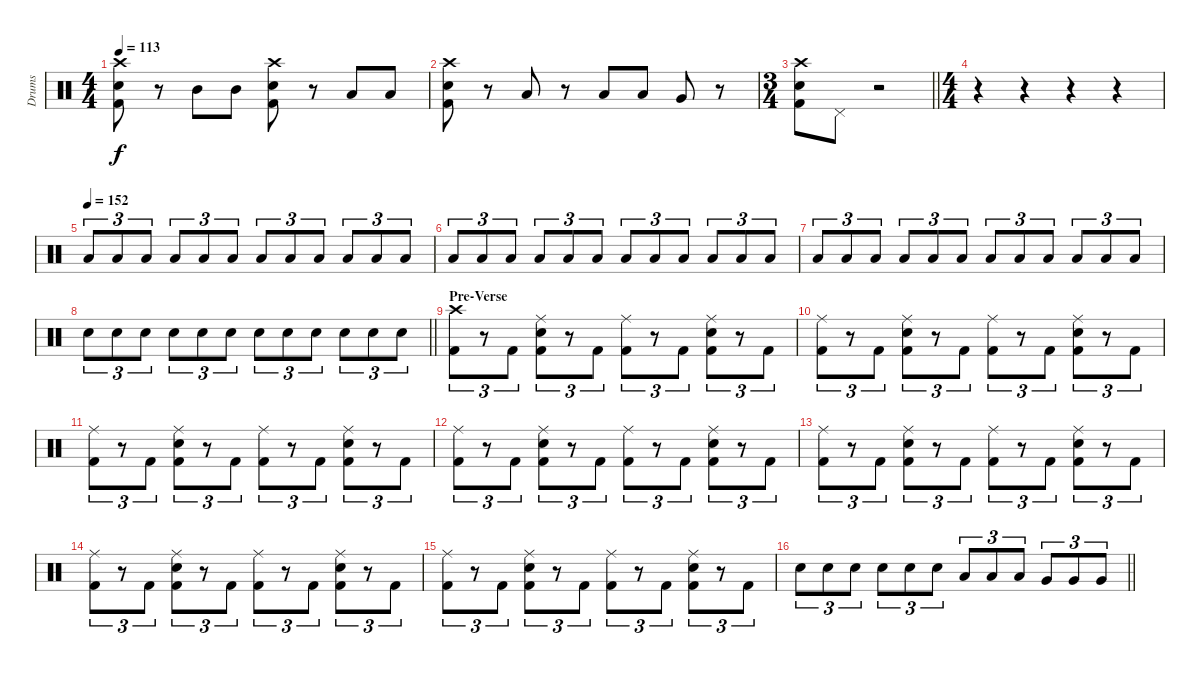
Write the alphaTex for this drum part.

\track ("Drums" "Drums") {instrument percussion}
\staff {score}
\articulation defaults
\ts (4 4)
\tempo 113
\clef neutral
\ks c
("Crash high (hit)" "Snare (hit) 2" "Kick (hit) 2").8{dy f} r.8 "Mid Tom (hit)".8 "Mid Tom (hit)".8 ("Crash high (hit)" "Snare (hit) 2" "Kick (hit) 2").8 r.8 "Low Tom (hit)".8 "Low Tom (hit)".8 |
("Crash high (hit)" "Snare (hit) 2" "Kick (hit) 2").8 r.8 "Low Tom (hit)".8 r.8 "Low Tom (hit)".8 "Low Tom (hit)".8 "Very Low Tom (hit)".8 r.8 |
\ts (3 4)
\barLineRight lightlight
("Crash high (hit)" "Snare (hit) 2" "Kick (hit) 2").8 "Pedal Hi-Hat (hit)".8 r.2 |
\ts (4 4)
r.4 r.4 r.4 r.4 |
\tempo (152)
"Low Tom (hit)".8{tu (3 2)} "Low Tom (hit)".8{tu (3 2)} "Low Tom (hit)".8{tu (3 2)} "Low Tom (hit)".8{tu (3 2)} "Low Tom (hit)".8{tu (3 2)} "Low Tom (hit)".8{tu (3 2)} "Low Tom (hit)".8{tu (3 2)} "Low Tom (hit)".8{tu (3 2)} "Low Tom (hit)".8{tu (3 2)} "Low Tom (hit)".8{tu (3 2)} "Low Tom (hit)".8{tu (3 2)} "Low Tom (hit)".8{tu (3 2)} |
"Low Tom (hit)".8{tu (3 2)} "Low Tom (hit)".8{tu (3 2)} "Low Tom (hit)".8{tu (3 2)} "Low Tom (hit)".8{tu (3 2)} "Low Tom (hit)".8{tu (3 2)} "Low Tom (hit)".8{tu (3 2)} "Low Tom (hit)".8{tu (3 2)} "Low Tom (hit)".8{tu (3 2)} "Low Tom (hit)".8{tu (3 2)} "Low Tom (hit)".8{tu (3 2)} "Low Tom (hit)".8{tu (3 2)} "Low Tom (hit)".8{tu (3 2)} |
"Low Tom (hit)".8{tu (3 2)} "Low Tom (hit)".8{tu (3 2)} "Low Tom (hit)".8{tu (3 2)} "Low Tom (hit)".8{tu (3 2)} "Low Tom (hit)".8{tu (3 2)} "Low Tom (hit)".8{tu (3 2)} "Low Tom (hit)".8{tu (3 2)} "Low Tom (hit)".8{tu (3 2)} "Low Tom (hit)".8{tu (3 2)} "Low Tom (hit)".8{tu (3 2)} "Low Tom (hit)".8{tu (3 2)} "Low Tom (hit)".8{tu (3 2)} |
\barLineRight lightlight "Snare (hit) 2".8{tu (3 2)} "Snare (hit) 2".8{tu (3 2)} "Snare (hit) 2".8{tu (3 2)} "Snare (hit) 2".8{tu (3 2)} "Snare (hit) 2".8{tu (3 2)} "Snare (hit) 2".8{tu (3 2)} "Snare (hit) 2".8{tu (3 2)} "Snare (hit) 2".8{tu (3 2)} "Snare (hit) 2".8{tu (3 2)} "Snare (hit) 2".8{tu (3 2)} "Snare (hit) 2".8{tu (3 2)} "Snare (hit) 2".8{tu (3 2)}
|
\section ("" "Pre-Verse")
("Crash high (hit)" "Kick (hit) 2").8{tu (3 2)} r.8{tu (3 2)} "Kick (hit) 2".8{tu (3 2)} ("Ride (middle)" "Snare (hit) 2" "Kick (hit) 2").8{tu (3 2)} r.8{tu (3 2)} "Kick (hit) 2".8{tu (3 2)} ("Ride (middle)" "Kick (hit) 2").8{tu (3 2)} r.8{tu (3 2)} "Kick (hit) 2".8{tu (3 2)} ("Ride (middle)" "Snare (hit) 2" "Kick (hit) 2").8{tu (3 2)} r.8{tu (3 2)} "Kick (hit) 2".8{tu (3 2)} |
("Ride (middle)" "Kick (hit) 2").8{tu (3 2)} r.8{tu (3 2)} "Kick (hit) 2".8{tu (3 2)} ("Ride (middle)" "Snare (hit) 2" "Kick (hit) 2").8{tu (3 2)} r.8{tu (3 2)} "Kick (hit) 2".8{tu (3 2)} ("Ride (middle)" "Kick (hit) 2").8{tu (3 2)} r.8{tu (3 2)} "Kick (hit) 2".8{tu (3 2)} ("Ride (middle)" "Snare (hit) 2" "Kick (hit) 2").8{tu (3 2)} r.8{tu (3 2)} "Kick (hit) 2".8{tu (3 2)} |
("Ride (middle)" "Kick (hit) 2").8{tu (3 2)} r.8{tu (3 2)} "Kick (hit) 2".8{tu (3 2)} ("Ride (middle)" "Snare (hit) 2" "Kick (hit) 2").8{tu (3 2)} r.8{tu (3 2)} "Kick (hit) 2".8{tu (3 2)} ("Ride (middle)" "Kick (hit) 2").8{tu (3 2)} r.8{tu (3 2)} "Kick (hit) 2".8{tu (3 2)} ("Ride (middle)" "Snare (hit) 2" "Kick (hit) 2").8{tu (3 2)} r.8{tu (3 2)} "Kick (hit) 2".8{tu (3 2)} |
("Ride (middle)" "Kick (hit) 2").8{tu (3 2)} r.8{tu (3 2)} "Kick (hit) 2".8{tu (3 2)} ("Ride (middle)" "Snare (hit) 2" "Kick (hit) 2").8{tu (3 2)} r.8{tu (3 2)} "Kick (hit) 2".8{tu (3 2)} ("Ride (middle)" "Kick (hit) 2").8{tu (3 2)} r.8{tu (3 2)} "Kick (hit) 2".8{tu (3 2)} ("Ride (middle)" "Snare (hit) 2" "Kick (hit) 2").8{tu (3 2)} r.8{tu (3 2)} "Kick (hit) 2".8{tu (3 2)} |
("Ride (middle)" "Kick (hit) 2").8{tu (3 2)} r.8{tu (3 2)} "Kick (hit) 2".8{tu (3 2)} ("Ride (middle)" "Snare (hit) 2" "Kick (hit) 2").8{tu (3 2)} r.8{tu (3 2)} "Kick (hit) 2".8{tu (3 2)} ("Ride (middle)" "Kick (hit) 2").8{tu (3 2)} r.8{tu (3 2)} "Kick (hit) 2".8{tu (3 2)} ("Ride (middle)" "Snare (hit) 2" "Kick (hit) 2").8{tu (3 2)} r.8{tu (3 2)} "Kick (hit) 2".8{tu (3 2)} |
("Ride (middle)" "Kick (hit) 2").8{tu (3 2)} r.8{tu (3 2)} "Kick (hit) 2".8{tu (3 2)} ("Ride (middle)" "Snare (hit) 2" "Kick (hit) 2").8{tu (3 2)} r.8{tu (3 2)} "Kick (hit) 2".8{tu (3 2)} ("Ride (middle)" "Kick (hit) 2").8{tu (3 2)} r.8{tu (3 2)} "Kick (hit) 2".8{tu (3 2)} ("Ride (middle)" "Snare (hit) 2" "Kick (hit) 2").8{tu (3 2)} r.8{tu (3 2)} "Kick (hit) 2".8{tu (3 2)} |
("Ride (middle)" "Kick (hit) 2").8{tu (3 2)} r.8{tu (3 2)} "Kick (hit) 2".8{tu (3 2)} ("Ride (middle)" "Snare (hit) 2" "Kick (hit) 2").8{tu (3 2)} r.8{tu (3 2)} "Kick (hit) 2".8{tu (3 2)} ("Ride (middle)" "Kick (hit) 2").8{tu (3 2)} r.8{tu (3 2)} "Kick (hit) 2".8{tu (3 2)} ("Ride (middle)" "Snare (hit) 2" "Kick (hit) 2").8{tu (3 2)} r.8{tu (3 2)} "Kick (hit) 2".8{tu (3 2)} |
\barLineRight lightlight "Snare (hit) 2".8{tu (3 2)} "Snare (hit) 2".8{tu (3 2)} "Snare (hit) 2".8{tu (3 2)} "Snare (hit) 2".8{tu (3 2)} "Snare (hit) 2".8{tu (3 2)} "Snare (hit) 2".8{tu (3 2)} "Low Tom (hit)".8{tu (3 2)} "Low Tom (hit)".8{tu (3 2)} "Low Tom (hit)".8{tu (3 2)} "Very Low Tom (hit)".8{tu (3 2)} "Very Low Tom (hit)".8{tu (3 2)} "Very Low Tom (hit)".8{tu (3 2)}
